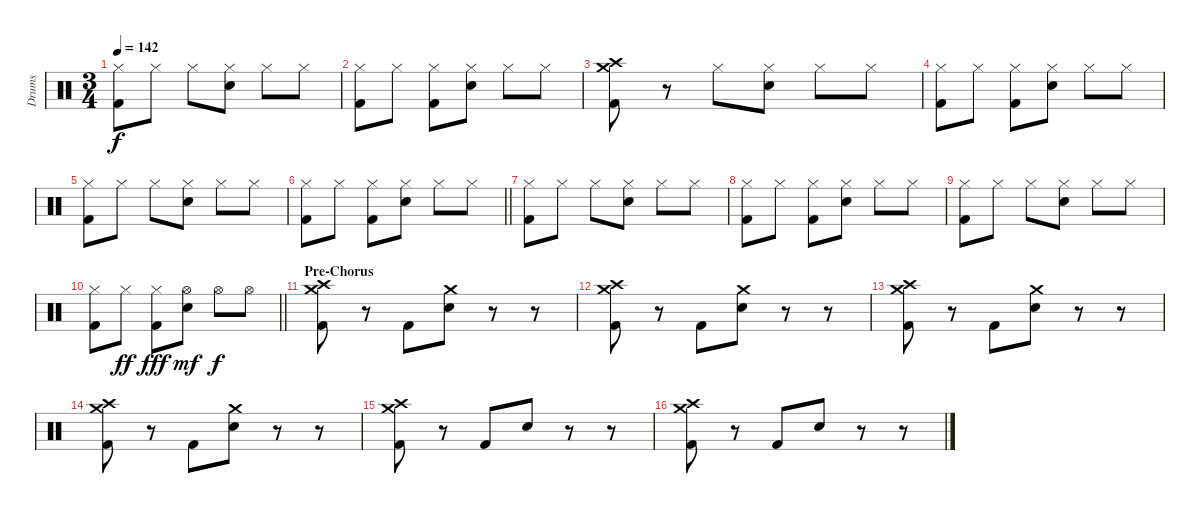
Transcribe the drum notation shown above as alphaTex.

\track ("Drums" "Drums") {instrument percussion}
\staff {score}
\articulation defaults
\ts (3 4)
\tempo 142
\clef neutral
\ks c
("Hi-Hat (closed)" "Kick (hit) 2").8{dy f} "Hi-Hat (closed)".8 "Hi-Hat (closed)".8 ("Hi-Hat (closed)" "Electric Snare (hit)").8 "Hi-Hat (closed)".8 "Hi-Hat (closed)".8 |
("Hi-Hat (closed)" "Kick (hit) 2").8 "Hi-Hat (closed)".8 ("Hi-Hat (closed)" "Kick (hit) 2").8 ("Hi-Hat (closed)" "Electric Snare (hit)").8 "Hi-Hat (closed)".8 "Hi-Hat (closed)".8 |
("Crash medium (hit)" "Crash high (hit)" "Kick (hit) 2").8 r.8 "Hi-Hat (closed)".8 ("Hi-Hat (closed)" "Electric Snare (hit)").8 "Hi-Hat (closed)".8 "Hi-Hat (closed)".8 |
("Hi-Hat (closed)" "Kick (hit) 2").8 "Hi-Hat (closed)".8 ("Hi-Hat (closed)" "Kick (hit) 2").8 ("Hi-Hat (closed)" "Electric Snare (hit)").8 "Hi-Hat (closed)".8 "Hi-Hat (closed)".8 |
("Hi-Hat (closed)" "Kick (hit) 2").8 "Hi-Hat (closed)".8 "Hi-Hat (closed)".8 ("Hi-Hat (closed)" "Electric Snare (hit)").8 "Hi-Hat (closed)".8 "Hi-Hat (closed)".8 |
\barLineRight lightlight
("Hi-Hat (closed)" "Kick (hit) 2").8 "Hi-Hat (closed)".8 ("Hi-Hat (closed)" "Kick (hit) 2").8 ("Hi-Hat (closed)" "Electric Snare (hit)").8 "Hi-Hat (closed)".8 "Hi-Hat (closed)".8 |
("Hi-Hat (closed)" "Kick (hit) 2").8 "Hi-Hat (closed)".8 "Hi-Hat (closed)".8 ("Hi-Hat (closed)" "Electric Snare (hit)").8 "Hi-Hat (closed)".8 "Hi-Hat (closed)".8 |
("Hi-Hat (closed)" "Kick (hit) 2").8 "Hi-Hat (closed)".8 ("Hi-Hat (closed)" "Kick (hit) 2").8 ("Hi-Hat (closed)" "Electric Snare (hit)").8 "Hi-Hat (closed)".8 "Hi-Hat (closed)".8 |
("Hi-Hat (closed)" "Kick (hit) 2").8 "Hi-Hat (closed)".8 "Hi-Hat (closed)".8 ("Hi-Hat (closed)" "Electric Snare (hit)").8 "Hi-Hat (closed)".8 "Hi-Hat (closed)".8 |
\barLineRight lightlight
("Hi-Hat (closed)" "Kick (hit) 2").8 "Hi-Hat (closed)".8{dy ff} ("Hi-Hat (closed)" "Kick (hit) 2").8{dy fff} ("Hi-Hat (open)" "Electric Snare (hit)").8{dy mf} "Hi-Hat (open)".8{dy f} "Hi-Hat (open)".8 |
\section ("" "Pre-Chorus")
("Crash medium (hit)" "Crash high (hit)" "Kick (hit) 2").8 r.8 "Kick (hit) 2".8 ("Crash medium (hit)" "Electric Snare (hit)").8 r.8 r.8 |
("Crash medium (hit)" "Crash high (hit)" "Kick (hit) 2").8 r.8 "Kick (hit) 2".8 ("Crash medium (hit)" "Electric Snare (hit)").8 r.8 r.8 |
("Crash medium (hit)" "Crash high (hit)" "Kick (hit) 2").8 r.8 "Kick (hit) 2".8 ("Crash medium (hit)" "Electric Snare (hit)").8 r.8 r.8 |
("Crash medium (hit)" "Crash high (hit)" "Kick (hit) 2").8 r.8 "Kick (hit) 2".8 ("Crash medium (hit)" "Electric Snare (hit)").8 r.8 r.8 |
("Crash medium (hit)" "Crash high (hit)" "Kick (hit) 2").8 r.8 "Kick (hit) 2".8 "Electric Snare (hit)".8 r.8 r.8 |
("Crash medium (hit)" "Crash high (hit)" "Kick (hit) 2").8 r.8 "Kick (hit) 2".8 "Electric Snare (hit)".8 r.8 r.8
